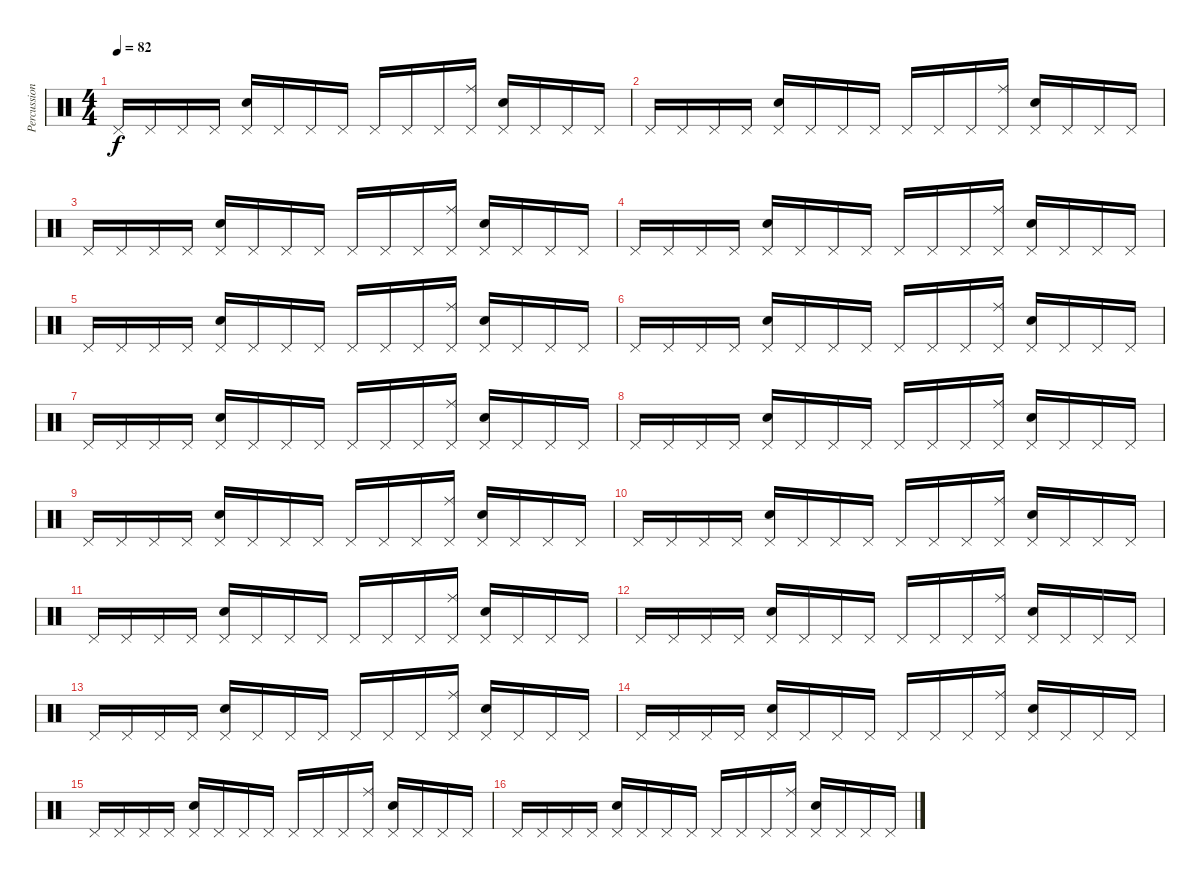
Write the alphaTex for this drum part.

\track ("Percussions" "Percussion") {instrument percussion}
\staff {score}
\articulation defaults
\ts (4 4)
\tempo 82
\clef neutral
\ks c "Pedal Hi-Hat (hit)".16{dy f} "Pedal Hi-Hat (hit)".16 "Pedal Hi-Hat (hit)".16 "Pedal Hi-Hat (hit)".16
("Pedal Hi-Hat (hit)" "Hand Clap (hit)").16 "Pedal Hi-Hat (hit)".16 "Pedal Hi-Hat (hit)".16 "Pedal Hi-Hat (hit)".16 "Pedal Hi-Hat (hit)".16 "Pedal Hi-Hat (hit)".16 "Pedal Hi-Hat (hit)".16 ("Pedal Hi-Hat (hit)" "Ride (middle)").16 ("Pedal Hi-Hat (hit)" "Hand Clap (hit)").16 "Pedal Hi-Hat (hit)".16 "Pedal Hi-Hat (hit)".16 "Pedal Hi-Hat (hit)".16 |
"Pedal Hi-Hat (hit)".16 "Pedal Hi-Hat (hit)".16 "Pedal Hi-Hat (hit)".16 "Pedal Hi-Hat (hit)".16 ("Pedal Hi-Hat (hit)" "Hand Clap (hit)").16 "Pedal Hi-Hat (hit)".16 "Pedal Hi-Hat (hit)".16 "Pedal Hi-Hat (hit)".16 "Pedal Hi-Hat (hit)".16 "Pedal Hi-Hat (hit)".16 "Pedal Hi-Hat (hit)".16 ("Pedal Hi-Hat (hit)" "Ride (middle)").16 ("Pedal Hi-Hat (hit)" "Hand Clap (hit)").16 "Pedal Hi-Hat (hit)".16 "Pedal Hi-Hat (hit)".16 "Pedal Hi-Hat (hit)".16 |
"Pedal Hi-Hat (hit)".16 "Pedal Hi-Hat (hit)".16 "Pedal Hi-Hat (hit)".16 "Pedal Hi-Hat (hit)".16 ("Pedal Hi-Hat (hit)" "Hand Clap (hit)").16 "Pedal Hi-Hat (hit)".16 "Pedal Hi-Hat (hit)".16 "Pedal Hi-Hat (hit)".16 "Pedal Hi-Hat (hit)".16 "Pedal Hi-Hat (hit)".16 "Pedal Hi-Hat (hit)".16 ("Pedal Hi-Hat (hit)" "Ride (middle)").16 ("Pedal Hi-Hat (hit)" "Hand Clap (hit)").16 "Pedal Hi-Hat (hit)".16 "Pedal Hi-Hat (hit)".16 "Pedal Hi-Hat (hit)".16 |
"Pedal Hi-Hat (hit)".16 "Pedal Hi-Hat (hit)".16 "Pedal Hi-Hat (hit)".16 "Pedal Hi-Hat (hit)".16 ("Pedal Hi-Hat (hit)" "Hand Clap (hit)").16 "Pedal Hi-Hat (hit)".16 "Pedal Hi-Hat (hit)".16 "Pedal Hi-Hat (hit)".16 "Pedal Hi-Hat (hit)".16 "Pedal Hi-Hat (hit)".16 "Pedal Hi-Hat (hit)".16 ("Pedal Hi-Hat (hit)" "Ride (middle)").16 ("Pedal Hi-Hat (hit)" "Hand Clap (hit)").16 "Pedal Hi-Hat (hit)".16 "Pedal Hi-Hat (hit)".16 "Pedal Hi-Hat (hit)".16 |
"Pedal Hi-Hat (hit)".16 "Pedal Hi-Hat (hit)".16 "Pedal Hi-Hat (hit)".16 "Pedal Hi-Hat (hit)".16 ("Pedal Hi-Hat (hit)" "Hand Clap (hit)").16 "Pedal Hi-Hat (hit)".16 "Pedal Hi-Hat (hit)".16 "Pedal Hi-Hat (hit)".16 "Pedal Hi-Hat (hit)".16 "Pedal Hi-Hat (hit)".16 "Pedal Hi-Hat (hit)".16 ("Pedal Hi-Hat (hit)" "Ride (middle)").16 ("Pedal Hi-Hat (hit)" "Hand Clap (hit)").16 "Pedal Hi-Hat (hit)".16 "Pedal Hi-Hat (hit)".16 "Pedal Hi-Hat (hit)".16 |
"Pedal Hi-Hat (hit)".16 "Pedal Hi-Hat (hit)".16 "Pedal Hi-Hat (hit)".16 "Pedal Hi-Hat (hit)".16 ("Pedal Hi-Hat (hit)" "Hand Clap (hit)").16 "Pedal Hi-Hat (hit)".16 "Pedal Hi-Hat (hit)".16 "Pedal Hi-Hat (hit)".16 "Pedal Hi-Hat (hit)".16 "Pedal Hi-Hat (hit)".16 "Pedal Hi-Hat (hit)".16 ("Pedal Hi-Hat (hit)" "Ride (middle)").16 ("Pedal Hi-Hat (hit)" "Hand Clap (hit)").16 "Pedal Hi-Hat (hit)".16 "Pedal Hi-Hat (hit)".16 "Pedal Hi-Hat (hit)".16 |
"Pedal Hi-Hat (hit)".16 "Pedal Hi-Hat (hit)".16 "Pedal Hi-Hat (hit)".16 "Pedal Hi-Hat (hit)".16 ("Pedal Hi-Hat (hit)" "Hand Clap (hit)").16 "Pedal Hi-Hat (hit)".16 "Pedal Hi-Hat (hit)".16 "Pedal Hi-Hat (hit)".16 "Pedal Hi-Hat (hit)".16 "Pedal Hi-Hat (hit)".16 "Pedal Hi-Hat (hit)".16 ("Pedal Hi-Hat (hit)" "Ride (middle)").16 ("Pedal Hi-Hat (hit)" "Hand Clap (hit)").16 "Pedal Hi-Hat (hit)".16 "Pedal Hi-Hat (hit)".16 "Pedal Hi-Hat (hit)".16 |
"Pedal Hi-Hat (hit)".16 "Pedal Hi-Hat (hit)".16 "Pedal Hi-Hat (hit)".16 "Pedal Hi-Hat (hit)".16 ("Pedal Hi-Hat (hit)" "Hand Clap (hit)").16 "Pedal Hi-Hat (hit)".16 "Pedal Hi-Hat (hit)".16 "Pedal Hi-Hat (hit)".16 "Pedal Hi-Hat (hit)".16 "Pedal Hi-Hat (hit)".16 "Pedal Hi-Hat (hit)".16 ("Pedal Hi-Hat (hit)" "Ride (middle)").16 ("Pedal Hi-Hat (hit)" "Hand Clap (hit)").16 "Pedal Hi-Hat (hit)".16 "Pedal Hi-Hat (hit)".16 "Pedal Hi-Hat (hit)".16 |
"Pedal Hi-Hat (hit)".16 "Pedal Hi-Hat (hit)".16 "Pedal Hi-Hat (hit)".16 "Pedal Hi-Hat (hit)".16 ("Pedal Hi-Hat (hit)" "Hand Clap (hit)").16 "Pedal Hi-Hat (hit)".16 "Pedal Hi-Hat (hit)".16 "Pedal Hi-Hat (hit)".16 "Pedal Hi-Hat (hit)".16 "Pedal Hi-Hat (hit)".16 "Pedal Hi-Hat (hit)".16 ("Pedal Hi-Hat (hit)" "Ride (middle)").16 ("Pedal Hi-Hat (hit)" "Hand Clap (hit)").16 "Pedal Hi-Hat (hit)".16 "Pedal Hi-Hat (hit)".16 "Pedal Hi-Hat (hit)".16 |
"Pedal Hi-Hat (hit)".16 "Pedal Hi-Hat (hit)".16 "Pedal Hi-Hat (hit)".16 "Pedal Hi-Hat (hit)".16 ("Pedal Hi-Hat (hit)" "Hand Clap (hit)").16 "Pedal Hi-Hat (hit)".16 "Pedal Hi-Hat (hit)".16 "Pedal Hi-Hat (hit)".16 "Pedal Hi-Hat (hit)".16 "Pedal Hi-Hat (hit)".16 "Pedal Hi-Hat (hit)".16 ("Pedal Hi-Hat (hit)" "Ride (middle)").16 ("Pedal Hi-Hat (hit)" "Hand Clap (hit)").16 "Pedal Hi-Hat (hit)".16 "Pedal Hi-Hat (hit)".16 "Pedal Hi-Hat (hit)".16 |
"Pedal Hi-Hat (hit)".16 "Pedal Hi-Hat (hit)".16 "Pedal Hi-Hat (hit)".16 "Pedal Hi-Hat (hit)".16 ("Pedal Hi-Hat (hit)" "Hand Clap (hit)").16 "Pedal Hi-Hat (hit)".16 "Pedal Hi-Hat (hit)".16 "Pedal Hi-Hat (hit)".16 "Pedal Hi-Hat (hit)".16 "Pedal Hi-Hat (hit)".16 "Pedal Hi-Hat (hit)".16 ("Pedal Hi-Hat (hit)" "Ride (middle)").16 ("Pedal Hi-Hat (hit)" "Hand Clap (hit)").16 "Pedal Hi-Hat (hit)".16 "Pedal Hi-Hat (hit)".16 "Pedal Hi-Hat (hit)".16 |
"Pedal Hi-Hat (hit)".16 "Pedal Hi-Hat (hit)".16 "Pedal Hi-Hat (hit)".16 "Pedal Hi-Hat (hit)".16 ("Pedal Hi-Hat (hit)" "Hand Clap (hit)").16 "Pedal Hi-Hat (hit)".16 "Pedal Hi-Hat (hit)".16 "Pedal Hi-Hat (hit)".16 "Pedal Hi-Hat (hit)".16 "Pedal Hi-Hat (hit)".16 "Pedal Hi-Hat (hit)".16 ("Pedal Hi-Hat (hit)" "Ride (middle)").16 ("Pedal Hi-Hat (hit)" "Hand Clap (hit)").16 "Pedal Hi-Hat (hit)".16 "Pedal Hi-Hat (hit)".16 "Pedal Hi-Hat (hit)".16 |
"Pedal Hi-Hat (hit)".16 "Pedal Hi-Hat (hit)".16 "Pedal Hi-Hat (hit)".16 "Pedal Hi-Hat (hit)".16 ("Pedal Hi-Hat (hit)" "Hand Clap (hit)").16 "Pedal Hi-Hat (hit)".16 "Pedal Hi-Hat (hit)".16 "Pedal Hi-Hat (hit)".16 "Pedal Hi-Hat (hit)".16 "Pedal Hi-Hat (hit)".16 "Pedal Hi-Hat (hit)".16 ("Pedal Hi-Hat (hit)" "Ride (middle)").16 ("Pedal Hi-Hat (hit)" "Hand Clap (hit)").16 "Pedal Hi-Hat (hit)".16 "Pedal Hi-Hat (hit)".16 "Pedal Hi-Hat (hit)".16 |
"Pedal Hi-Hat (hit)".16 "Pedal Hi-Hat (hit)".16 "Pedal Hi-Hat (hit)".16 "Pedal Hi-Hat (hit)".16 ("Pedal Hi-Hat (hit)" "Hand Clap (hit)").16 "Pedal Hi-Hat (hit)".16 "Pedal Hi-Hat (hit)".16 "Pedal Hi-Hat (hit)".16 "Pedal Hi-Hat (hit)".16 "Pedal Hi-Hat (hit)".16 "Pedal Hi-Hat (hit)".16 ("Pedal Hi-Hat (hit)" "Ride (middle)").16 ("Pedal Hi-Hat (hit)" "Hand Clap (hit)").16 "Pedal Hi-Hat (hit)".16 "Pedal Hi-Hat (hit)".16 "Pedal Hi-Hat (hit)".16 |
"Pedal Hi-Hat (hit)".16 "Pedal Hi-Hat (hit)".16 "Pedal Hi-Hat (hit)".16 "Pedal Hi-Hat (hit)".16 ("Pedal Hi-Hat (hit)" "Hand Clap (hit)").16 "Pedal Hi-Hat (hit)".16 "Pedal Hi-Hat (hit)".16 "Pedal Hi-Hat (hit)".16 "Pedal Hi-Hat (hit)".16 "Pedal Hi-Hat (hit)".16 "Pedal Hi-Hat (hit)".16 ("Pedal Hi-Hat (hit)" "Ride (middle)").16 ("Pedal Hi-Hat (hit)" "Hand Clap (hit)").16 "Pedal Hi-Hat (hit)".16 "Pedal Hi-Hat (hit)".16 "Pedal Hi-Hat (hit)".16 |
"Pedal Hi-Hat (hit)".16 "Pedal Hi-Hat (hit)".16 "Pedal Hi-Hat (hit)".16 "Pedal Hi-Hat (hit)".16 ("Pedal Hi-Hat (hit)" "Hand Clap (hit)").16 "Pedal Hi-Hat (hit)".16 "Pedal Hi-Hat (hit)".16 "Pedal Hi-Hat (hit)".16 "Pedal Hi-Hat (hit)".16 "Pedal Hi-Hat (hit)".16 "Pedal Hi-Hat (hit)".16 ("Pedal Hi-Hat (hit)" "Ride (middle)").16 ("Pedal Hi-Hat (hit)" "Hand Clap (hit)").16 "Pedal Hi-Hat (hit)".16 "Pedal Hi-Hat (hit)".16 "Pedal Hi-Hat (hit)".16
